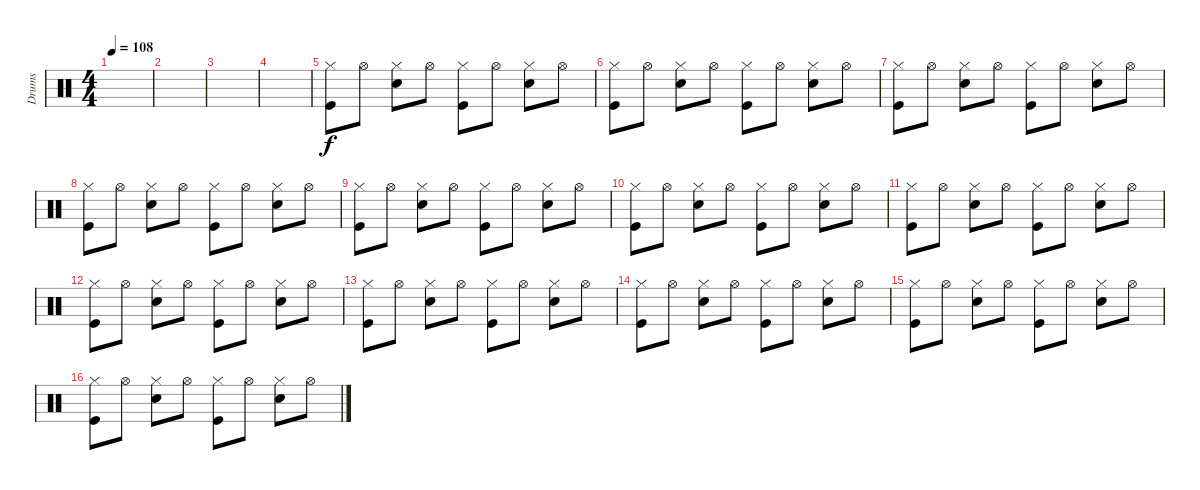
\track ("Drums" "Drums") {instrument percussion}
\staff {score}
\articulation defaults
\ts (4 4)
\tempo 108
\clef neutral
\ks c
|
|
|
|
("Hi-Hat (closed)" "Kick (hit)").8 "Hi-Hat (open)".8 ("Hi-Hat (closed)" "Electric Snare (hit)").8 "Hi-Hat (open)".8 ("Hi-Hat (closed)" "Kick (hit)").8 "Hi-Hat (open)".8 ("Hi-Hat (closed)" "Electric Snare (hit)").8 "Hi-Hat (open)".8 |
("Hi-Hat (closed)" "Kick (hit)").8 "Hi-Hat (open)".8 ("Hi-Hat (closed)" "Electric Snare (hit)").8 "Hi-Hat (open)".8 ("Hi-Hat (closed)" "Kick (hit)").8 "Hi-Hat (open)".8 ("Hi-Hat (closed)" "Electric Snare (hit)").8 "Hi-Hat (open)".8 |
("Hi-Hat (closed)" "Kick (hit)").8 "Hi-Hat (open)".8 ("Hi-Hat (closed)" "Electric Snare (hit)").8 "Hi-Hat (open)".8 ("Hi-Hat (closed)" "Kick (hit)").8 "Hi-Hat (open)".8 ("Hi-Hat (closed)" "Electric Snare (hit)").8 "Hi-Hat (open)".8 |
("Hi-Hat (closed)" "Kick (hit)").8 "Hi-Hat (open)".8 ("Hi-Hat (closed)" "Electric Snare (hit)").8 "Hi-Hat (open)".8 ("Hi-Hat (closed)" "Kick (hit)").8 "Hi-Hat (open)".8 ("Hi-Hat (closed)" "Electric Snare (hit)").8 "Hi-Hat (open)".8 |
("Hi-Hat (closed)" "Kick (hit)").8 "Hi-Hat (open)".8 ("Hi-Hat (closed)" "Electric Snare (hit)").8 "Hi-Hat (open)".8 ("Hi-Hat (closed)" "Kick (hit)").8 "Hi-Hat (open)".8 ("Hi-Hat (closed)" "Electric Snare (hit)").8 "Hi-Hat (open)".8 |
("Hi-Hat (closed)" "Kick (hit)").8 "Hi-Hat (open)".8 ("Hi-Hat (closed)" "Electric Snare (hit)").8 "Hi-Hat (open)".8 ("Hi-Hat (closed)" "Kick (hit)").8 "Hi-Hat (open)".8 ("Hi-Hat (closed)" "Electric Snare (hit)").8 "Hi-Hat (open)".8 |
("Hi-Hat (closed)" "Kick (hit)").8 "Hi-Hat (open)".8 ("Hi-Hat (closed)" "Electric Snare (hit)").8 "Hi-Hat (open)".8 ("Hi-Hat (closed)" "Kick (hit)").8 "Hi-Hat (open)".8 ("Hi-Hat (closed)" "Electric Snare (hit)").8 "Hi-Hat (open)".8 |
("Hi-Hat (closed)" "Kick (hit)").8 "Hi-Hat (open)".8 ("Hi-Hat (closed)" "Electric Snare (hit)").8 "Hi-Hat (open)".8 ("Hi-Hat (closed)" "Kick (hit)").8 "Hi-Hat (open)".8 ("Hi-Hat (closed)" "Electric Snare (hit)").8 "Hi-Hat (open)".8 |
("Hi-Hat (closed)" "Kick (hit)").8 "Hi-Hat (open)".8 ("Hi-Hat (closed)" "Electric Snare (hit)").8 "Hi-Hat (open)".8 ("Hi-Hat (closed)" "Kick (hit)").8 "Hi-Hat (open)".8 ("Hi-Hat (closed)" "Electric Snare (hit)").8 "Hi-Hat (open)".8 |
("Hi-Hat (closed)" "Kick (hit)").8 "Hi-Hat (open)".8 ("Hi-Hat (closed)" "Electric Snare (hit)").8 "Hi-Hat (open)".8 ("Hi-Hat (closed)" "Kick (hit)").8 "Hi-Hat (open)".8 ("Hi-Hat (closed)" "Electric Snare (hit)").8 "Hi-Hat (open)".8 |
("Hi-Hat (closed)" "Kick (hit)").8 "Hi-Hat (open)".8 ("Hi-Hat (closed)" "Electric Snare (hit)").8 "Hi-Hat (open)".8 ("Hi-Hat (closed)" "Kick (hit)").8 "Hi-Hat (open)".8 ("Hi-Hat (closed)" "Electric Snare (hit)").8 "Hi-Hat (open)".8 |
("Hi-Hat (closed)" "Kick (hit)").8 "Hi-Hat (open)".8 ("Hi-Hat (closed)" "Electric Snare (hit)").8 "Hi-Hat (open)".8 ("Hi-Hat (closed)" "Kick (hit)").8 "Hi-Hat (open)".8 ("Hi-Hat (closed)" "Electric Snare (hit)").8 "Hi-Hat (open)".8
